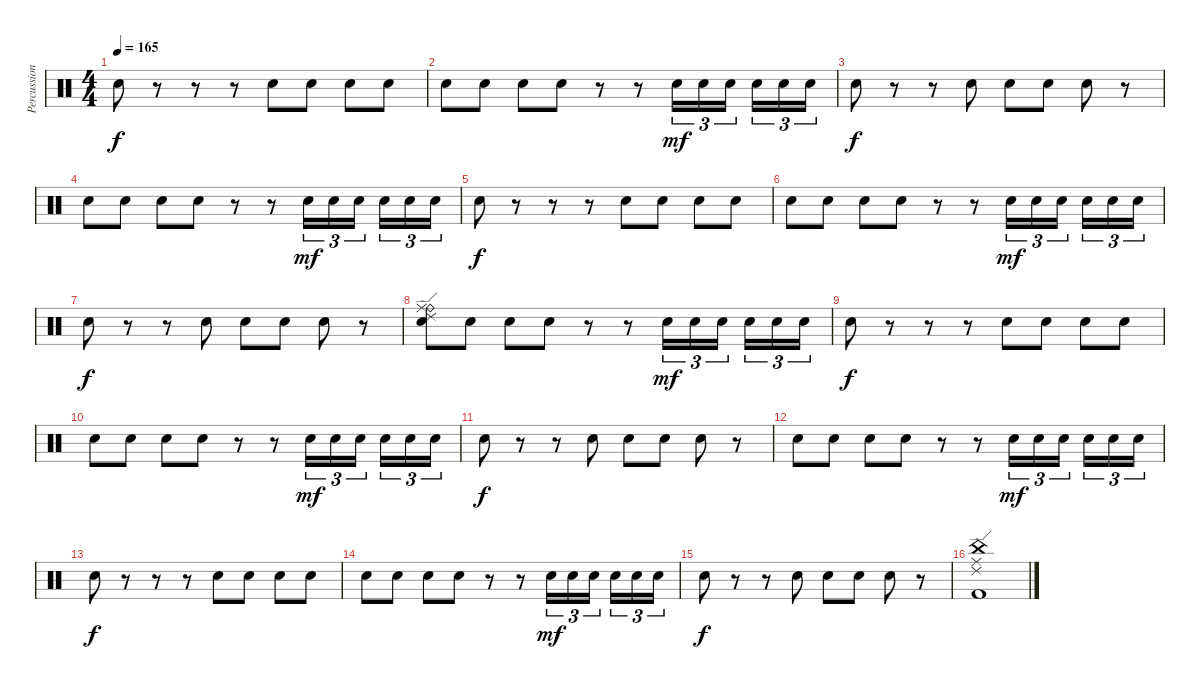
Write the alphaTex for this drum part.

\track ("Percussion" "Percussion") {instrument percussion}
\staff {score}
\articulation defaults
\ts (4 4)
\tempo 165
\clef neutral
\ks c "Snare (hit) 2".8{dy f}
r.8 r.8 r.8 "Snare (hit) 2".8 "Snare (hit) 2".8 "Snare (hit) 2".8 "Snare (hit) 2".8 |
"Snare (hit) 2".8 "Snare (hit) 2".8 "Snare (hit) 2".8 "Snare (hit) 2".8 r.8 r.8 "Snare (hit) 2".16{tu (3 2) dy mf} "Snare (hit) 2".16{tu (3 2)} "Snare (hit) 2".16{tu (3 2) beam splitsecondary} "Snare (hit) 2".16{tu (3 2)} "Snare (hit) 2".16{tu (3 2)} "Snare (hit) 2".16{tu (3 2)} |
"Snare (hit) 2".8{dy f} r.8 r.8 "Snare (hit) 2".8 "Snare (hit) 2".8 "Snare (hit) 2".8 "Snare (hit) 2".8 r.8 |
"Snare (hit) 2".8 "Snare (hit) 2".8 "Snare (hit) 2".8 "Snare (hit) 2".8 r.8 r.8 "Snare (hit) 2".16{tu (3 2) dy mf} "Snare (hit) 2".16{tu (3 2)} "Snare (hit) 2".16{tu (3 2) beam splitsecondary} "Snare (hit) 2".16{tu (3 2)} "Snare (hit) 2".16{tu (3 2)} "Snare (hit) 2".16{tu (3 2)} |
"Snare (hit) 2".8{dy f} r.8 r.8 r.8 "Snare (hit) 2".8 "Snare (hit) 2".8 "Snare (hit) 2".8 "Snare (hit) 2".8 |
"Snare (hit) 2".8 "Snare (hit) 2".8 "Snare (hit) 2".8 "Snare (hit) 2".8 r.8 r.8 "Snare (hit) 2".16{tu (3 2) dy mf} "Snare (hit) 2".16{tu (3 2)} "Snare (hit) 2".16{tu (3 2) beam splitsecondary} "Snare (hit) 2".16{tu (3 2)} "Snare (hit) 2".16{tu (3 2)} "Snare (hit) 2".16{tu (3 2)} |
"Snare (hit) 2".8{dy f} r.8 r.8 "Snare (hit) 2".8 "Snare (hit) 2".8 "Snare (hit) 2".8 "Snare (hit) 2".8 r.8 |
("Ride (bell)" "Ride (middle)" "Ride (edge) 2" "Snare (hit) 2").8 "Snare (hit) 2".8 "Snare (hit) 2".8 "Snare (hit) 2".8 r.8 r.8 "Snare (hit) 2".16{tu (3 2) dy mf} "Snare (hit) 2".16{tu (3 2)} "Snare (hit) 2".16{tu (3 2) beam splitsecondary} "Snare (hit) 2".16{tu (3 2)} "Snare (hit) 2".16{tu (3 2)} "Snare (hit) 2".16{tu (3 2)} |
"Snare (hit) 2".8{dy f} r.8 r.8 r.8 "Snare (hit) 2".8 "Snare (hit) 2".8 "Snare (hit) 2".8 "Snare (hit) 2".8 |
"Snare (hit) 2".8 "Snare (hit) 2".8 "Snare (hit) 2".8 "Snare (hit) 2".8 r.8 r.8 "Snare (hit) 2".16{tu (3 2) dy mf} "Snare (hit) 2".16{tu (3 2)} "Snare (hit) 2".16{tu (3 2) beam splitsecondary} "Snare (hit) 2".16{tu (3 2)} "Snare (hit) 2".16{tu (3 2)} "Snare (hit) 2".16{tu (3 2)} |
"Snare (hit) 2".8{dy f} r.8 r.8 "Snare (hit) 2".8 "Snare (hit) 2".8 "Snare (hit) 2".8 "Snare (hit) 2".8 r.8 |
"Snare (hit) 2".8 "Snare (hit) 2".8 "Snare (hit) 2".8 "Snare (hit) 2".8 r.8 r.8 "Snare (hit) 2".16{tu (3 2) dy mf} "Snare (hit) 2".16{tu (3 2)} "Snare (hit) 2".16{tu (3 2) beam splitsecondary} "Snare (hit) 2".16{tu (3 2)} "Snare (hit) 2".16{tu (3 2)} "Snare (hit) 2".16{tu (3 2)} |
"Snare (hit) 2".8{dy f} r.8 r.8 r.8 "Snare (hit) 2".8 "Snare (hit) 2".8 "Snare (hit) 2".8 "Snare (hit) 2".8 |
"Snare (hit) 2".8 "Snare (hit) 2".8 "Snare (hit) 2".8 "Snare (hit) 2".8 r.8 r.8 "Snare (hit) 2".16{tu (3 2) dy mf} "Snare (hit) 2".16{tu (3 2)} "Snare (hit) 2".16{tu (3 2) beam splitsecondary} "Snare (hit) 2".16{tu (3 2)} "Snare (hit) 2".16{tu (3 2)} "Snare (hit) 2".16{tu (3 2)} |
"Snare (hit) 2".8{dy f} r.8 r.8 "Snare (hit) 2".8 "Snare (hit) 2".8 "Snare (hit) 2".8 "Snare (hit) 2".8 r.8 |
("China (hit)" "Ride (middle)" "Ride (edge) 2" "Kick (hit) 2").1{volume 0}
